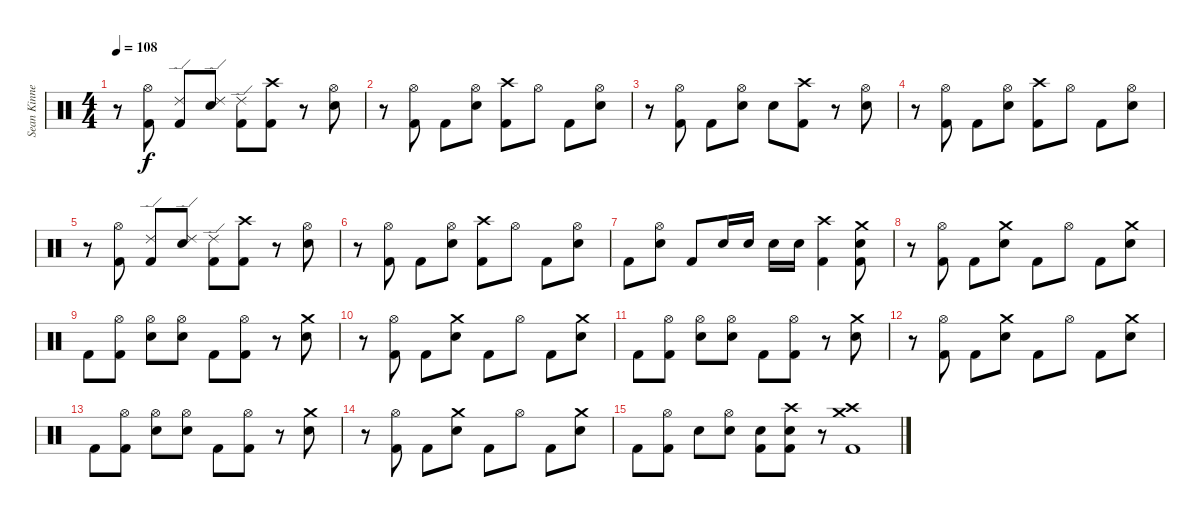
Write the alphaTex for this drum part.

\track ("Sean Kinney" "Sean Kinne") {instrument percussion}
\staff {score}
\articulation defaults
\ts (4 4)
\tempo 108
\clef neutral
\ks c
r.8{dy f} ("Hi-Hat (open)" "Kick (hit) 2").8 ("Ride (edge) 2" "Kick (hit) 2").8 ("Ride (edge) 2" "Electric Snare (hit)").8 ("Ride (edge) 2" "Kick (hit) 2").8 ("Crash high (hit)" "Kick (hit) 2").8 r.8 ("Hi-Hat (open)" "Electric Snare (hit)").8 |
r.8 ("Hi-Hat (open)" "Kick (hit) 2").8 "Kick (hit) 2".8 ("Hi-Hat (open)" "Electric Snare (hit)").8 ("Crash high (hit)" "Kick (hit) 2").8 "Hi-Hat (open)".8 "Kick (hit) 2".8 ("Hi-Hat (open)" "Electric Snare (hit)").8 |
r.8 ("Hi-Hat (open)" "Kick (hit) 2").8 "Kick (hit) 2".8 ("Hi-Hat (open)" "Electric Snare (hit)").8 "Electric Snare (hit)".8 ("Crash high (hit)" "Kick (hit) 2").8 r.8 ("Hi-Hat (open)" "Electric Snare (hit)").8 |
r.8 ("Hi-Hat (open)" "Kick (hit) 2").8 "Kick (hit) 2".8 ("Hi-Hat (open)" "Electric Snare (hit)").8 ("Crash high (hit)" "Kick (hit) 2").8 "Hi-Hat (open)".8 "Kick (hit) 2".8 ("Hi-Hat (open)" "Electric Snare (hit)").8 |
r.8 ("Hi-Hat (open)" "Kick (hit) 2").8 ("Ride (edge) 2" "Kick (hit) 2").8 ("Ride (edge) 2" "Electric Snare (hit)").8 ("Ride (edge) 2" "Kick (hit) 2").8 ("Crash high (hit)" "Kick (hit) 2").8 r.8 ("Hi-Hat (open)" "Electric Snare (hit)").8 |
r.8 ("Hi-Hat (open)" "Kick (hit) 2").8 "Kick (hit) 2".8 ("Hi-Hat (open)" "Electric Snare (hit)").8 ("Crash high (hit)" "Kick (hit) 2").8 "Hi-Hat (open)".8 "Kick (hit) 2".8 ("Hi-Hat (open)" "Electric Snare (hit)").8 |
"Kick (hit) 2".8 ("Hi-Hat (open)" "Electric Snare (hit)").8 "Kick (hit) 2".8 "Electric Snare (hit)".16 "Electric Snare (hit)".16 "Electric Snare (hit)".16 "Electric Snare (hit)".16 ("Crash high (hit)" "Kick (hit) 2").4 ("Crash medium (hit)" "Electric Snare (hit)" "Kick (hit) 2").8 |
r.8 ("Hi-Hat (open)" "Kick (hit) 2").8 "Kick (hit) 2".8 ("Crash medium (hit)" "Electric Snare (hit)").8 "Kick (hit) 2".8 "Hi-Hat (open)".8 "Kick (hit) 2".8 ("Crash medium (hit)" "Electric Snare (hit)").8 |
"Kick (hit) 2".8 ("Hi-Hat (open)" "Kick (hit) 2").8 ("Hi-Hat (open)" "Electric Snare (hit)").8 ("Hi-Hat (open)" "Electric Snare (hit)").8 "Kick (hit) 2".8 ("Hi-Hat (open)" "Kick (hit) 2").8 r.8 ("Crash medium (hit)" "Electric Snare (hit)").8 |
r.8 ("Hi-Hat (open)" "Kick (hit) 2").8 "Kick (hit) 2".8 ("Crash medium (hit)" "Electric Snare (hit)").8 "Kick (hit) 2".8 "Hi-Hat (open)".8 "Kick (hit) 2".8 ("Crash medium (hit)" "Electric Snare (hit)").8 |
"Kick (hit) 2".8 ("Hi-Hat (open)" "Kick (hit) 2").8 ("Hi-Hat (open)" "Electric Snare (hit)").8 ("Hi-Hat (open)" "Electric Snare (hit)").8 "Kick (hit) 2".8 ("Hi-Hat (open)" "Kick (hit) 2").8 r.8 ("Crash medium (hit)" "Electric Snare (hit)").8 |
r.8 ("Hi-Hat (open)" "Kick (hit) 2").8 "Kick (hit) 2".8 ("Crash medium (hit)" "Electric Snare (hit)").8 "Kick (hit) 2".8 "Hi-Hat (open)".8 "Kick (hit) 2".8 ("Crash medium (hit)" "Electric Snare (hit)").8 |
"Kick (hit) 2".8 ("Hi-Hat (open)" "Kick (hit) 2").8 ("Hi-Hat (open)" "Electric Snare (hit)").8 ("Hi-Hat (open)" "Electric Snare (hit)").8 "Kick (hit) 2".8 ("Hi-Hat (open)" "Kick (hit) 2").8 r.8 ("Crash medium (hit)" "Electric Snare (hit)").8 |
r.8 ("Hi-Hat (open)" "Kick (hit) 2").8 "Kick (hit) 2".8 ("Crash medium (hit)" "Electric Snare (hit)").8 "Kick (hit) 2".8 "Hi-Hat (open)".8 "Kick (hit) 2".8 ("Crash medium (hit)" "Electric Snare (hit)").8 |
"Kick (hit) 2".8 ("Hi-Hat (open)" "Kick (hit) 2").8 "Electric Snare (hit)".8 ("Hi-Hat (open)" "Electric Snare (hit)").8 ("Electric Snare (hit)" "Kick (hit) 2").8 ("Crash high (hit)" "Electric Snare (hit)" "Kick (hit) 2").8 r.8 ("Crash medium (hit)" "Crash high (hit)" "Kick (hit) 2").1
